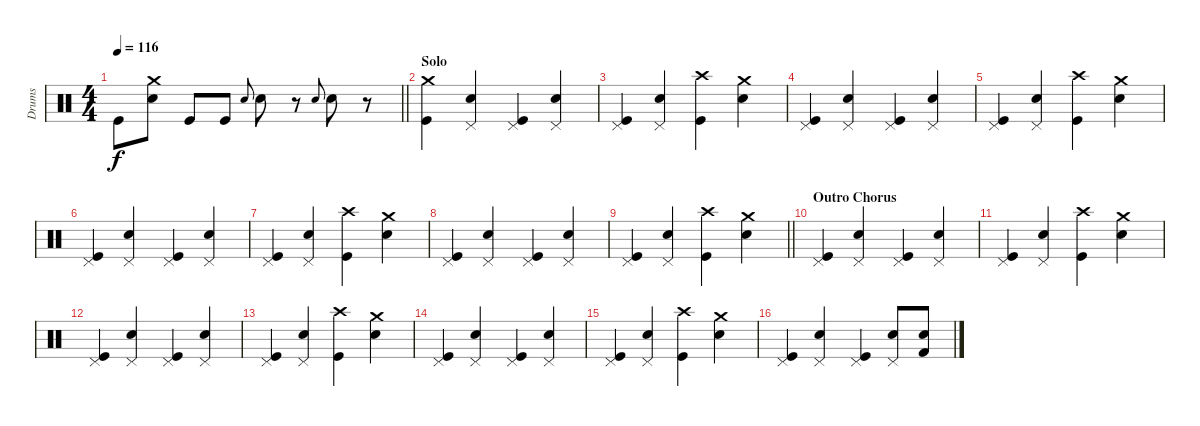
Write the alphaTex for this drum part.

\track ("Drums" "Drums") {instrument percussion}
\staff {score}
\articulation defaults
\ts (4 4)
\tempo 116
\clef neutral
\barLineRight lightlight
\ks c "Kick (hit)".8{dy f}
("Crash medium (hit)" "Electric Snare (hit)").8 "Kick (hit)".8 "Kick (hit)".8 "Electric Snare (hit)".8{gr onbeat} "Electric Snare (hit)".8 r.8 "Electric Snare (hit)".8{gr onbeat} "Electric Snare (hit)".8 r.8 |
\section ("" "Solo")
("Crash medium (hit)" "Kick (hit)").4 ("Pedal Hi-Hat (hit)" "Electric Snare (hit)").4 ("Pedal Hi-Hat (hit)" "Kick (hit)").4 ("Pedal Hi-Hat (hit)" "Electric Snare (hit)").4 |
("Pedal Hi-Hat (hit)" "Kick (hit)").4 ("Pedal Hi-Hat (hit)" "Electric Snare (hit)").4 ("Crash high (hit)" "Kick (hit)").4 ("Crash medium (hit)" "Electric Snare (hit)").4 |
("Pedal Hi-Hat (hit)" "Kick (hit)").4 ("Pedal Hi-Hat (hit)" "Electric Snare (hit)").4 ("Pedal Hi-Hat (hit)" "Kick (hit)").4 ("Pedal Hi-Hat (hit)" "Electric Snare (hit)").4 |
("Pedal Hi-Hat (hit)" "Kick (hit)").4 ("Pedal Hi-Hat (hit)" "Electric Snare (hit)").4 ("Crash high (hit)" "Kick (hit)").4 ("Crash medium (hit)" "Electric Snare (hit)").4 |
("Pedal Hi-Hat (hit)" "Kick (hit)").4 ("Pedal Hi-Hat (hit)" "Electric Snare (hit)").4 ("Pedal Hi-Hat (hit)" "Kick (hit)").4 ("Pedal Hi-Hat (hit)" "Electric Snare (hit)").4 |
("Pedal Hi-Hat (hit)" "Kick (hit)").4 ("Pedal Hi-Hat (hit)" "Electric Snare (hit)").4 ("Crash high (hit)" "Kick (hit)").4 ("Crash medium (hit)" "Electric Snare (hit)").4 |
("Pedal Hi-Hat (hit)" "Kick (hit)").4 ("Pedal Hi-Hat (hit)" "Electric Snare (hit)").4 ("Pedal Hi-Hat (hit)" "Kick (hit)").4 ("Pedal Hi-Hat (hit)" "Electric Snare (hit)").4 |
\barLineRight lightlight
("Pedal Hi-Hat (hit)" "Kick (hit)").4 ("Pedal Hi-Hat (hit)" "Electric Snare (hit)").4 ("Crash high (hit)" "Kick (hit)").4 ("Crash medium (hit)" "Electric Snare (hit)").4 |
\section ("" "Outro Chorus")
("Pedal Hi-Hat (hit)" "Kick (hit)").4 ("Pedal Hi-Hat (hit)" "Electric Snare (hit)").4 ("Pedal Hi-Hat (hit)" "Kick (hit)").4 ("Pedal Hi-Hat (hit)" "Electric Snare (hit)").4 |
("Pedal Hi-Hat (hit)" "Kick (hit)").4 ("Pedal Hi-Hat (hit)" "Electric Snare (hit)").4 ("Crash high (hit)" "Kick (hit)").4 ("Crash medium (hit)" "Electric Snare (hit)").4 |
("Pedal Hi-Hat (hit)" "Kick (hit)").4 ("Pedal Hi-Hat (hit)" "Electric Snare (hit)").4 ("Pedal Hi-Hat (hit)" "Kick (hit)").4 ("Pedal Hi-Hat (hit)" "Electric Snare (hit)").4 |
("Pedal Hi-Hat (hit)" "Kick (hit)").4 ("Pedal Hi-Hat (hit)" "Electric Snare (hit)").4 ("Crash high (hit)" "Kick (hit)").4 ("Crash medium (hit)" "Electric Snare (hit)").4 |
("Pedal Hi-Hat (hit)" "Kick (hit)").4 ("Pedal Hi-Hat (hit)" "Electric Snare (hit)").4 ("Pedal Hi-Hat (hit)" "Kick (hit)").4 ("Pedal Hi-Hat (hit)" "Electric Snare (hit)").4 |
("Pedal Hi-Hat (hit)" "Kick (hit)").4 ("Pedal Hi-Hat (hit)" "Electric Snare (hit)").4 ("Crash high (hit)" "Kick (hit)").4 ("Crash medium (hit)" "Electric Snare (hit)").4 |
("Pedal Hi-Hat (hit)" "Kick (hit)").4 ("Pedal Hi-Hat (hit)" "Electric Snare (hit)").4 ("Pedal Hi-Hat (hit)" "Kick (hit)").4 ("Pedal Hi-Hat (hit)" "Electric Snare (hit)").8 ("Electric Snare (hit)" "Kick (hit) 2").8
